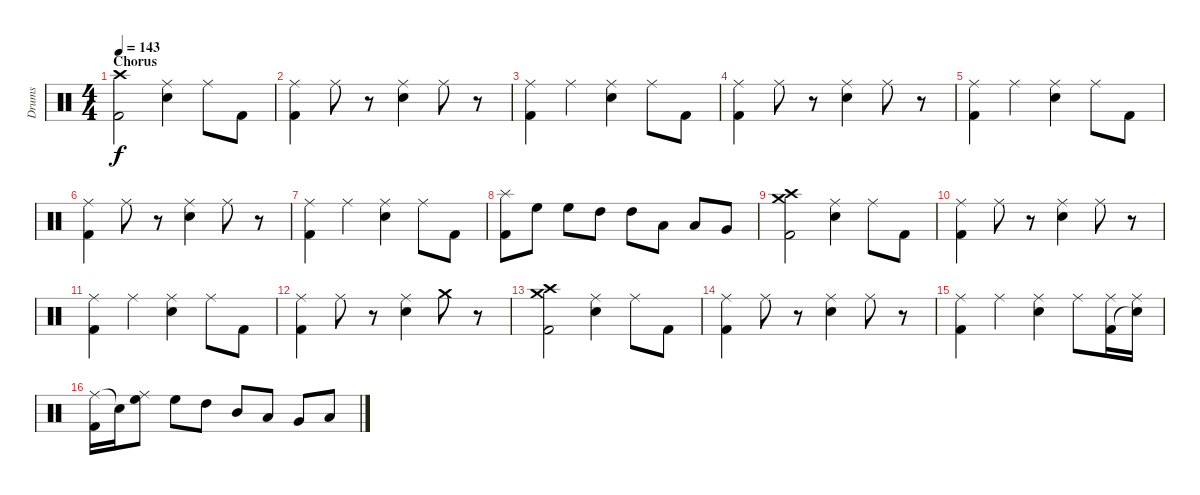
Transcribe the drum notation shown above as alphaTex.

\track ("Drums" "Drums") {instrument percussion}
\staff {score}
\articulation defaults
\ts (4 4)
\section ("" "Chorus")
\tempo 143
\clef neutral
\ks c
("Crash high (hit)" "Kick (hit) 2").2{dy f} ("Ride (middle)" "Electric Snare (hit)").4 "Ride (middle)".8 "Kick (hit) 2".8 |
("Ride (middle)" "Kick (hit) 2").4 "Ride (middle)".8 r.8 ("Ride (middle)" "Electric Snare (hit)").4 "Ride (middle)".8 r.8 |
("Ride (middle)" "Kick (hit) 2").4 "Ride (middle)".4 ("Ride (middle)" "Electric Snare (hit)").4 "Ride (middle)".8 "Kick (hit) 2".8 |
("Ride (middle)" "Kick (hit) 2").4 "Ride (middle)".8 r.8 ("Ride (middle)" "Electric Snare (hit)").4 "Ride (middle)".8 r.8 |
("Ride (middle)" "Kick (hit) 2").4 "Ride (middle)".4 ("Ride (middle)" "Electric Snare (hit)").4 "Ride (middle)".8 "Kick (hit) 2".8 |
("Ride (middle)" "Kick (hit) 2").4 "Ride (middle)".8 r.8 ("Ride (middle)" "Electric Snare (hit)").4 "Ride (middle)".8 r.8 |
("Ride (middle)" "Kick (hit) 2").4 "Ride (middle)".4 ("Ride (middle)" "Electric Snare (hit)").4 "Ride (middle)".8 "Kick (hit) 2".8 |
("Splash (hit)" "Kick (hit) 2").8 "High Floor Tom (hit)".8 "High Floor Tom (hit)".8 "High Tom (hit)".8 "High Tom (hit)".8 "Low Tom (hit)".8 "Low Tom (hit)".8 "Very Low Tom (hit)".8 |
("Crash medium (hit)" "Crash high (hit)" "Kick (hit) 2").2 ("Ride (middle)" "Electric Snare (hit)").4 "Ride (middle)".8 "Kick (hit) 2".8 |
("Ride (middle)" "Kick (hit) 2").4 "Ride (middle)".8 r.8 ("Ride (middle)" "Electric Snare (hit)").4 "Ride (middle)".8 r.8 |
("Ride (middle)" "Kick (hit) 2").4 "Ride (middle)".4 ("Ride (middle)" "Electric Snare (hit)").4 "Ride (middle)".8 "Kick (hit) 2".8 |
("Ride (middle)" "Kick (hit) 2").4 "Ride (middle)".8 r.8 ("Ride (middle)" "Electric Snare (hit)").4 "Crash medium (hit)".8 r.8 |
("Crash medium (hit)" "Crash high (hit)" "Kick (hit) 2").2 ("Ride (middle)" "Electric Snare (hit)").4 "Ride (middle)".8 "Kick (hit) 2".8 |
("Ride (middle)" "Kick (hit) 2").4 "Ride (middle)".8 r.8 ("Ride (middle)" "Electric Snare (hit)").4 "Ride (middle)".8 r.8 |
("Ride (middle)" "Kick (hit) 2").4 "Ride (middle)".4 ("Ride (middle)" "Electric Snare (hit)").4 "Ride (middle)".8 ("Ride (middle)" "Kick (hit) 2").16 ("Ride (middle)" "Snare (hit)"{t}).16 |
("Ride (middle)" "Kick (hit) 2").16 "Snare (hit)"{t}.16 ("Ride (middle)" "High Floor Tom (hit)").8 "High Floor Tom (hit)".8 "High Tom (hit)".8 "Mid Tom (hit)".8 "Low Tom (hit)".8 "Very Low Tom (hit)".8 "Low Floor Tom (hit)".8
